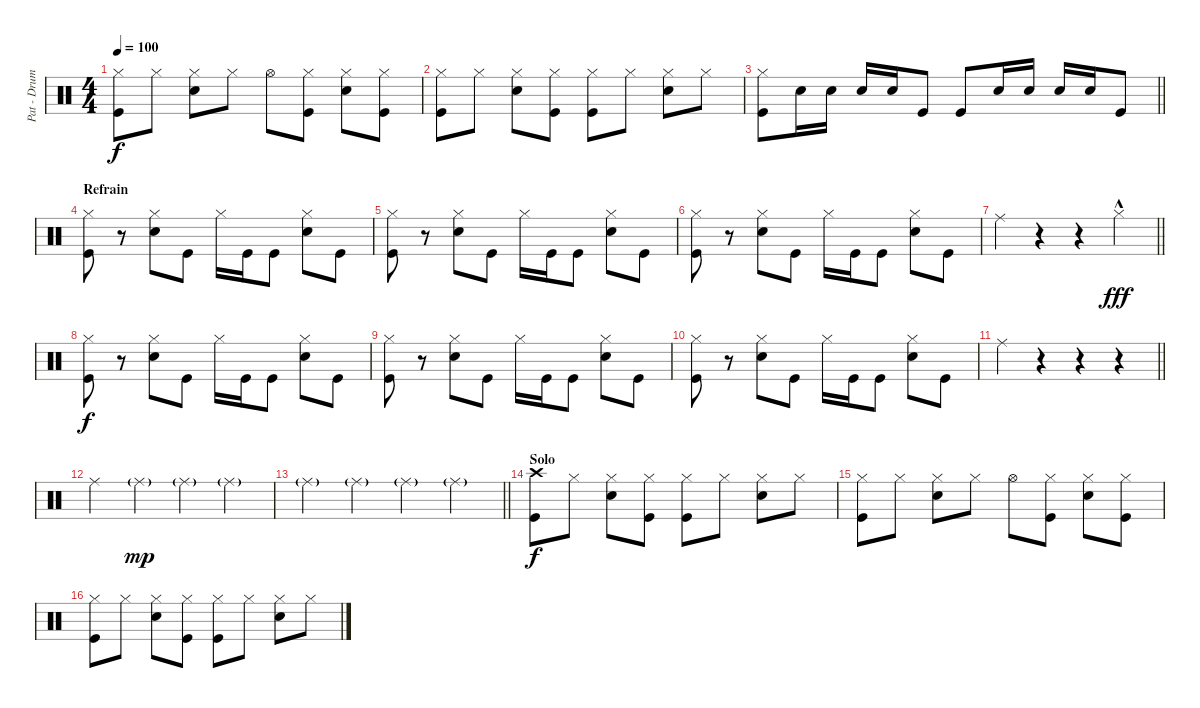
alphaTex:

\track ("Pat - Drums" "Pat - Drum") {instrument percussion}
\staff {score}
\articulation defaults
\ts (4 4)
\tempo 100
\clef neutral
\ks c
("Hi-Hat (closed)" "Kick (hit)").8{dy f} "Hi-Hat (closed)".8 ("Hi-Hat (closed)" "Electric Snare (hit)").8 "Hi-Hat (closed)".8 "Hi-Hat (open)".8 ("Hi-Hat (closed)" "Kick (hit)").8 ("Hi-Hat (closed)" "Electric Snare (hit)").8 ("Hi-Hat (closed)" "Kick (hit)").8 |
("Hi-Hat (closed)" "Kick (hit)").8 "Hi-Hat (closed)".8 ("Hi-Hat (closed)" "Electric Snare (hit)").8 ("Hi-Hat (closed)" "Kick (hit)").8 ("Hi-Hat (closed)" "Kick (hit)").8 "Hi-Hat (closed)".8 ("Hi-Hat (closed)" "Electric Snare (hit)").8 "Hi-Hat (closed)".8 |
\barLineRight lightlight
("Hi-Hat (closed)" "Kick (hit)").8 "Electric Snare (hit)".16 "Electric Snare (hit)".16 "Electric Snare (hit)".16 "Electric Snare (hit)".16 "Kick (hit)".8 "Kick (hit)".8 "Electric Snare (hit)".16 "Electric Snare (hit)".16 "Electric Snare (hit)".16 "Electric Snare (hit)".16 "Kick (hit)".8 |
\section ("" "Refrain")
("Hi-Hat (closed)" "Kick (hit)").8 r.8 ("Hi-Hat (closed)" "Electric Snare (hit)").8 "Kick (hit)".8 "Hi-Hat (closed)".16 "Kick (hit)".16 "Kick (hit)".8 ("Hi-Hat (closed)" "Electric Snare (hit)").8 "Kick (hit)".8 |
("Hi-Hat (closed)" "Kick (hit)").8 r.8 ("Hi-Hat (closed)" "Electric Snare (hit)").8 "Kick (hit)".8 "Hi-Hat (closed)".16 "Kick (hit)".16 "Kick (hit)".8 ("Hi-Hat (closed)" "Electric Snare (hit)").8 "Kick (hit)".8 |
("Hi-Hat (closed)" "Kick (hit)").8 r.8 ("Hi-Hat (closed)" "Electric Snare (hit)").8 "Kick (hit)".8 "Hi-Hat (closed)".16 "Kick (hit)".16 "Kick (hit)".8 ("Hi-Hat (closed)" "Electric Snare (hit)").8 "Kick (hit)".8 |
\barLineRight lightlight "Ride (middle)".4
r.4 r.4 "Hi-Hat (closed)"{hac}.4{dy fff} |
("Hi-Hat (closed)" "Kick (hit)").8{dy f} r.8 ("Hi-Hat (closed)" "Electric Snare (hit)").8 "Kick (hit)".8 "Hi-Hat (closed)".16 "Kick (hit)".16 "Kick (hit)".8 ("Hi-Hat (closed)" "Electric Snare (hit)").8 "Kick (hit)".8 |
("Hi-Hat (closed)" "Kick (hit)").8 r.8 ("Hi-Hat (closed)" "Electric Snare (hit)").8 "Kick (hit)".8 "Hi-Hat (closed)".16 "Kick (hit)".16 "Kick (hit)".8 ("Hi-Hat (closed)" "Electric Snare (hit)").8 "Kick (hit)".8 |
("Hi-Hat (closed)" "Kick (hit)").8 r.8 ("Hi-Hat (closed)" "Electric Snare (hit)").8 "Kick (hit)".8 "Hi-Hat (closed)".16 "Kick (hit)".16 "Kick (hit)".8 ("Hi-Hat (closed)" "Electric Snare (hit)").8 "Kick (hit)".8 |
\barLineRight lightlight "Ride (middle)".4
r.4 r.4 r.4 |
"Ride (middle)".4 "Ride (middle)"{g}.4{dy mp} "Ride (middle)"{g}.4 "Ride (middle)"{g}.4 |
\barLineRight lightlight "Ride (middle)"{g}.4 "Ride (middle)"{g}.4 "Ride (middle)"{g}.4 "Ride (middle)"{g}.4
|
\section ("" "Solo")
("Crash high (hit)" "Kick (hit)").8{dy f} "Hi-Hat (closed)".8 ("Hi-Hat (closed)" "Electric Snare (hit)").8 ("Hi-Hat (closed)" "Kick (hit)").8 ("Hi-Hat (closed)" "Kick (hit)").8 "Hi-Hat (closed)".8 ("Hi-Hat (closed)" "Electric Snare (hit)").8 "Hi-Hat (closed)".8 |
("Hi-Hat (closed)" "Kick (hit)").8 "Hi-Hat (closed)".8 ("Hi-Hat (closed)" "Electric Snare (hit)").8 "Hi-Hat (closed)".8 "Hi-Hat (open)".8 ("Hi-Hat (closed)" "Kick (hit)").8 ("Hi-Hat (closed)" "Electric Snare (hit)").8 ("Hi-Hat (closed)" "Kick (hit)").8 |
("Hi-Hat (closed)" "Kick (hit)").8 "Hi-Hat (closed)".8 ("Hi-Hat (closed)" "Electric Snare (hit)").8 ("Hi-Hat (closed)" "Kick (hit)").8 ("Hi-Hat (closed)" "Kick (hit)").8 "Hi-Hat (closed)".8 ("Hi-Hat (closed)" "Electric Snare (hit)").8 "Hi-Hat (closed)".8
